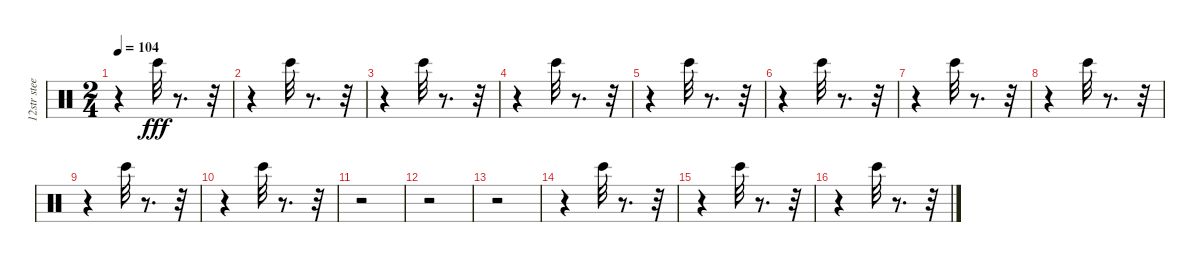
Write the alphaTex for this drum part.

\track ("12str steel mute " "12str stee") {instrument percussion}
\staff {score}
\articulation defaults
\ts (2 4)
\tempo 104
\clef neutral
\ks c
r.4{dy fff} "Bongo High (hit)".32 r.8{d} r.32 |
r.4 "Bongo High (hit)".32 r.8{d} r.32 |
r.4 "Bongo High (hit)".32 r.8{d} r.32 |
r.4 "Bongo High (hit)".32 r.8{d} r.32 |
r.4 "Bongo High (hit)".32 r.8{d} r.32 |
r.4 "Bongo High (hit)".32 r.8{d} r.32 |
r.4 "Bongo High (hit)".32 r.8{d} r.32 |
r.4 "Bongo High (hit)".32 r.8{d} r.32 |
r.4 "Bongo High (hit)".32 r.8{d} r.32 |
r.4 "Bongo High (hit)".32 r.8{d} r.32 |
r.2 |
r.2 |
r.2 |
r.4 "Bongo High (hit)".32 r.8{d} r.32 |
r.4 "Bongo High (hit)".32 r.8{d} r.32 |
r.4 "Bongo High (hit)".32 r.8{d} r.32
